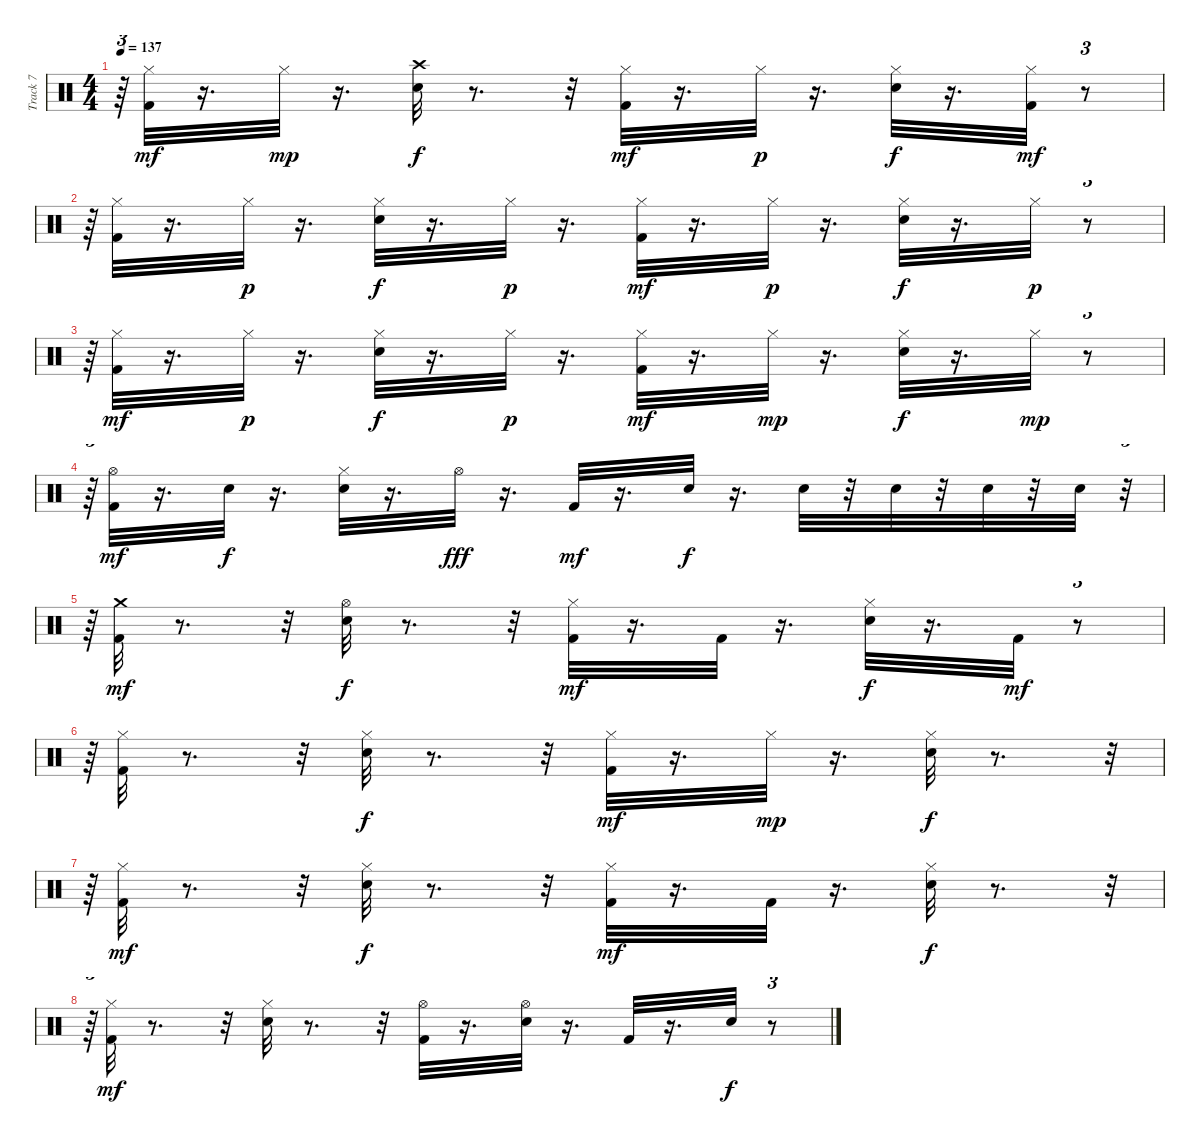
\track ("Track 7" "Track 7") {instrument percussion}
\staff {score}
\articulation defaults
\ts (4 4)
\tempo 137
\clef neutral
\ks c
r.64{tu (3 2) dy mf} ("Hi-Hat (closed)" "Kick (hit) 2").32 r.16{d} "Hi-Hat (closed)".32{dy mp} r.16{d} ("Crash high (hit)" "Snare (hit) 2").32{dy f} r.8{d} r.32 ("Hi-Hat (closed)" "Kick (hit) 2").32{dy mf} r.16{d} "Hi-Hat (closed)".32{dy p} r.16{d} ("Hi-Hat (closed)" "Snare (hit) 2").32{dy f} r.16{d} ("Hi-Hat (closed)" "Kick (hit) 2").32{dy mf} r.8{tu (3 2)} |
r.64{tu (3 2)} ("Hi-Hat (closed)" "Kick (hit) 2").32 r.16{d} "Hi-Hat (closed)".32{dy p} r.16{d} ("Hi-Hat (closed)" "Snare (hit) 2").32{dy f} r.16{d} "Hi-Hat (closed)".32{dy p} r.16{d} ("Hi-Hat (closed)" "Kick (hit) 2").32{dy mf} r.16{d} "Hi-Hat (closed)".32{dy p} r.16{d} ("Hi-Hat (closed)" "Snare (hit) 2").32{dy f} r.16{d} "Hi-Hat (closed)".32{dy p} r.8{tu (3 2)} |
r.64{tu (3 2)} ("Hi-Hat (closed)" "Kick (hit) 2").32{dy mf} r.16{d} "Hi-Hat (closed)".32{dy p} r.16{d} ("Hi-Hat (closed)" "Snare (hit) 2").32{dy f} r.16{d} "Hi-Hat (closed)".32{dy p} r.16{d} ("Hi-Hat (closed)" "Kick (hit) 2").32{dy mf} r.16{d} "Hi-Hat (closed)".32{dy mp} r.16{d} ("Hi-Hat (closed)" "Snare (hit) 2").32{dy f} r.16{d} "Hi-Hat (closed)".32{dy mp} r.8{tu (3 2)} |
r.64{tu (3 2)} ("Hi-Hat (open)" "Kick (hit) 2").32{dy mf} r.16{d} "Snare (hit) 2".32{dy f} r.16{d} ("Hi-Hat (closed)" "Snare (hit) 2").32 r.16{d} "Hi-Hat (open)".32{dy fff} r.16{d} "Kick (hit) 2".32{dy mf} r.16{d} "Snare (hit) 2".32{dy f} r.16{d} "Snare (hit) 2".32 r.32 "Snare (hit) 2".32 r.32 "Snare (hit) 2".32 r.32 "Snare (hit) 2".32 r.32{tu (3 2)} |
r.64{tu (3 2)} ("Crash medium (hit)" "Kick (hit) 2").32{dy mf} r.8{d} r.32 ("Hi-Hat (open)" "Snare (hit) 2").32{dy f} r.8{d} r.32 ("Hi-Hat (closed)" "Kick (hit) 2").32{dy mf} r.16{d} "Kick (hit) 2".32 r.16{d} ("Hi-Hat (closed)" "Snare (hit) 2").32{dy f} r.16{d} "Kick (hit) 2".32{dy mf} r.8{tu (3 2)} |
r.64{tu (3 2)} ("Hi-Hat (closed)" "Kick (hit) 2").32 r.8{d} r.32 ("Hi-Hat (closed)" "Snare (hit) 2").32{dy f} r.8{d} r.32 ("Hi-Hat (closed)" "Kick (hit) 2").32{dy mf} r.16{d} "Hi-Hat (closed)".32{dy mp} r.16{d} ("Hi-Hat (closed)" "Snare (hit) 2").32{dy f} r.8{d} r.32{tu (3 2)} |
r.64{tu (3 2)} ("Hi-Hat (closed)" "Kick (hit) 2").32{dy mf} r.8{d} r.32 ("Hi-Hat (closed)" "Snare (hit) 2").32{dy f} r.8{d} r.32 ("Hi-Hat (closed)" "Kick (hit) 2").32{dy mf} r.16{d} "Kick (hit) 2".32 r.16{d} ("Hi-Hat (closed)" "Snare (hit) 2").32{dy f} r.8{d} r.32{tu (3 2)} |
r.64{tu (3 2)} ("Hi-Hat (closed)" "Kick (hit) 2").32{dy mf} r.8{d} r.32 ("Hi-Hat (closed)" "Snare (hit) 2").32 r.8{d} r.32 ("Hi-Hat (open)" "Kick (hit) 2").32 r.16{d} ("Hi-Hat (open)" "Snare (hit) 2").32 r.16{d} "Kick (hit) 2".32 r.16{d} "Snare (hit) 2".32{dy f} r.8{tu (3 2)}
